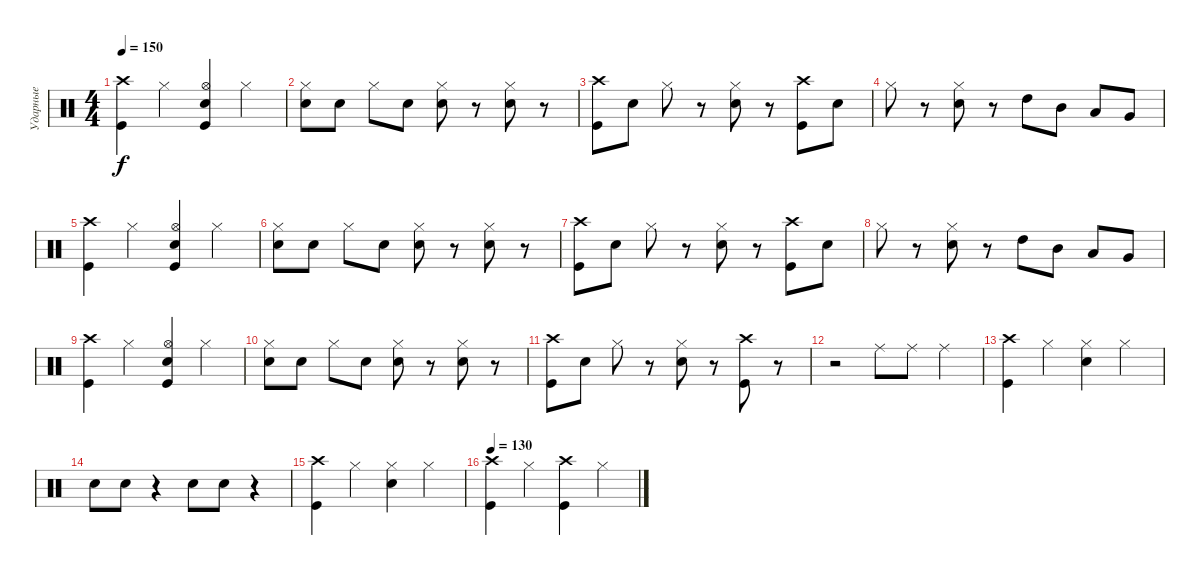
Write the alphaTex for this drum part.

\track ("Ударные" "Ударные") {instrument percussion}
\staff {score}
\articulation defaults
\ts (4 4)
\tempo 150
\clef neutral
\ks c
("Crash high (hit)" "Kick (hit)").4{dy f} "Hi-Hat (closed)".4 ("Hi-Hat (open)" "Snare (hit) 2" "Kick (hit)").4 "Hi-Hat (closed)".4 |
("Hi-Hat (closed)" "Snare (hit) 2").8 "Snare (hit) 2".8 "Hi-Hat (closed)".8 "Snare (hit) 2".8 ("Hi-Hat (closed)" "Snare (hit) 2").8 r.8 ("Hi-Hat (closed)" "Snare (hit) 2").8 r.8 |
("Crash high (hit)" "Kick (hit)").8 "Snare (hit) 2".8 "Hi-Hat (closed)".8 r.8 ("Hi-Hat (closed)" "Snare (hit) 2").8 r.8 ("Crash high (hit)" "Kick (hit)").8 "Snare (hit) 2".8 |
"Hi-Hat (closed)".8 r.8 ("Hi-Hat (closed)" "Snare (hit) 2").8 r.8 "High Tom (hit)".8 "Mid Tom (hit)".8 "Low Tom (hit)".8 "Very Low Tom (hit)".8 |
("Crash high (hit)" "Kick (hit)").4 "Hi-Hat (closed)".4 ("Hi-Hat (open)" "Snare (hit) 2" "Kick (hit)").4 "Hi-Hat (closed)".4 |
("Hi-Hat (closed)" "Snare (hit) 2").8 "Snare (hit) 2".8 "Hi-Hat (closed)".8 "Snare (hit) 2".8 ("Hi-Hat (closed)" "Snare (hit) 2").8 r.8 ("Hi-Hat (closed)" "Snare (hit) 2").8 r.8 |
("Crash high (hit)" "Kick (hit)").8 "Snare (hit) 2".8 "Hi-Hat (closed)".8 r.8 ("Hi-Hat (closed)" "Snare (hit) 2").8 r.8 ("Crash high (hit)" "Kick (hit)").8 "Snare (hit) 2".8 |
"Hi-Hat (closed)".8 r.8 ("Hi-Hat (closed)" "Snare (hit) 2").8 r.8 "High Tom (hit)".8 "Mid Tom (hit)".8 "Low Tom (hit)".8 "Very Low Tom (hit)".8 |
("Crash high (hit)" "Kick (hit)").4 "Hi-Hat (closed)".4 ("Hi-Hat (open)" "Snare (hit) 2" "Kick (hit)").4 "Hi-Hat (closed)".4 |
("Hi-Hat (closed)" "Snare (hit) 2").8 "Snare (hit) 2".8 "Hi-Hat (closed)".8 "Snare (hit) 2".8 ("Hi-Hat (closed)" "Snare (hit) 2").8 r.8 ("Hi-Hat (closed)" "Snare (hit) 2").8 r.8 |
("Crash high (hit)" "Kick (hit)").8 "Snare (hit) 2".8 "Hi-Hat (closed)".8 r.8 ("Hi-Hat (closed)" "Snare (hit) 2").8 r.8 ("Crash high (hit)" "Kick (hit)").8 r.8 |
r.2 "Ride (middle)".8 "Ride (middle)".8 "Ride (middle)".4 |
("Crash high (hit)" "Kick (hit)").4 "Hi-Hat (closed)".4 ("Hi-Hat (closed)" "Snare (hit) 2").4 "Hi-Hat (closed)".4 |
"Snare (hit) 2".8 "Snare (hit) 2".8 r.4 "Snare (hit) 2".8 "Snare (hit) 2".8 r.4 |
("Crash high (hit)" "Kick (hit)").4 "Hi-Hat (closed)".4 ("Hi-Hat (closed)" "Snare (hit) 2").4 "Hi-Hat (closed)".4 |
\tempo 130
("Crash high (hit)" "Kick (hit)").4 "Hi-Hat (closed)".4 ("Crash high (hit)" "Kick (hit)").4 "Hi-Hat (closed)".4
